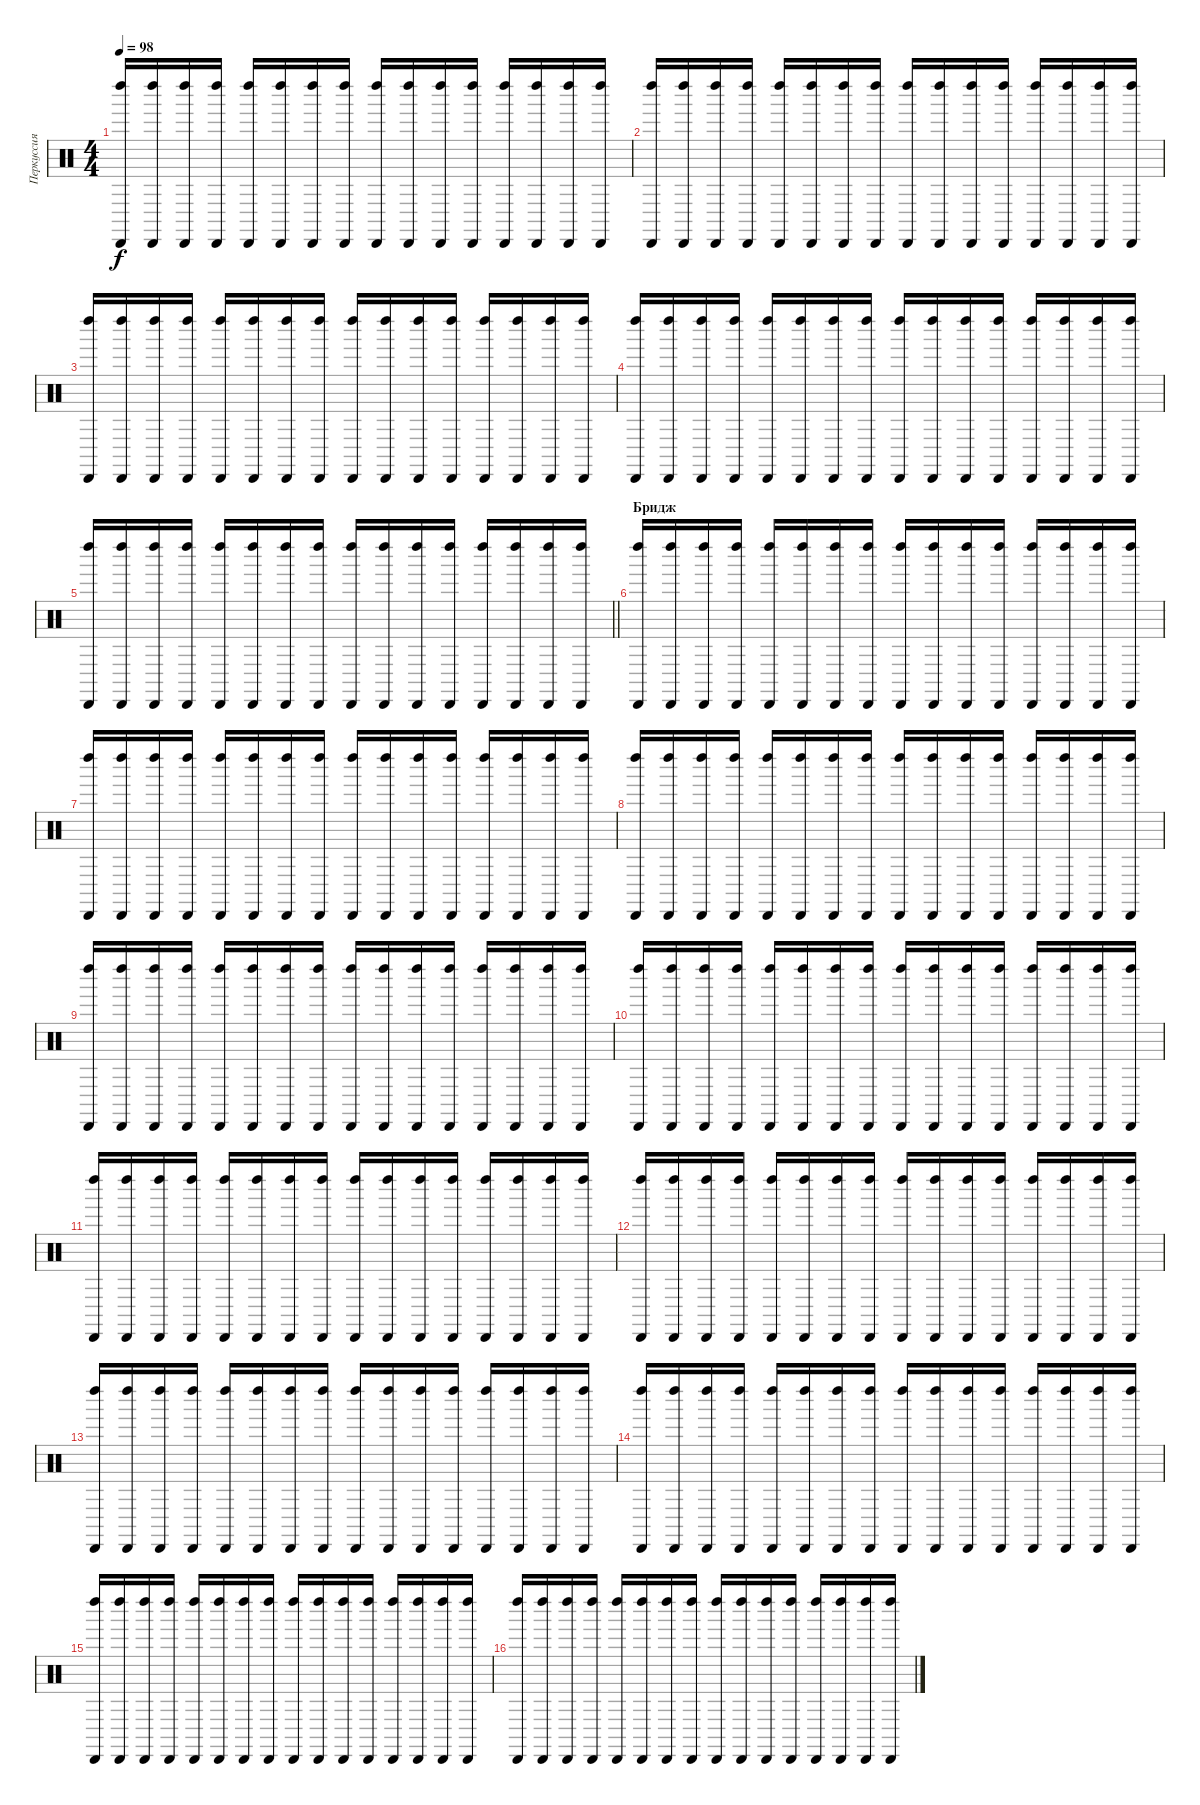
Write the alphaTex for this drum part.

\track ("Перкуссия" "Перкуссия") {instrument percussion}
\staff {score}
\articulation defaults
\ts (4 4)
\tempo 98
\clef neutral
\ks c
("Cabasa (hit)" "Left Maraca (hit)").16{dy f} ("Cabasa (hit)" "Left Maraca (hit)").16 ("Cabasa (hit)" "Left Maraca (hit)").16 ("Cabasa (hit)" "Left Maraca (hit)").16 ("Cabasa (hit)" "Left Maraca (hit)").16 ("Cabasa (hit)" "Left Maraca (hit)").16 ("Cabasa (hit)" "Left Maraca (hit)").16 ("Cabasa (hit)" "Left Maraca (hit)").16 ("Cabasa (hit)" "Left Maraca (hit)").16 ("Cabasa (hit)" "Left Maraca (hit)").16 ("Cabasa (hit)" "Left Maraca (hit)").16 ("Cabasa (hit)" "Left Maraca (hit)").16 ("Cabasa (hit)" "Left Maraca (hit)").16 ("Cabasa (hit)" "Left Maraca (hit)").16 ("Cabasa (hit)" "Left Maraca (hit)").16 ("Cabasa (hit)" "Left Maraca (hit)").16 |
("Cabasa (hit)" "Left Maraca (hit)").16 ("Cabasa (hit)" "Left Maraca (hit)").16 ("Cabasa (hit)" "Left Maraca (hit)").16 ("Cabasa (hit)" "Left Maraca (hit)").16 ("Cabasa (hit)" "Left Maraca (hit)").16 ("Cabasa (hit)" "Left Maraca (hit)").16 ("Cabasa (hit)" "Left Maraca (hit)").16 ("Cabasa (hit)" "Left Maraca (hit)").16 ("Cabasa (hit)" "Left Maraca (hit)").16 ("Cabasa (hit)" "Left Maraca (hit)").16 ("Cabasa (hit)" "Left Maraca (hit)").16 ("Cabasa (hit)" "Left Maraca (hit)").16 ("Cabasa (hit)" "Left Maraca (hit)").16 ("Cabasa (hit)" "Left Maraca (hit)").16 ("Cabasa (hit)" "Left Maraca (hit)").16 ("Cabasa (hit)" "Left Maraca (hit)").16 |
("Cabasa (hit)" "Left Maraca (hit)").16 ("Cabasa (hit)" "Left Maraca (hit)").16 ("Cabasa (hit)" "Left Maraca (hit)").16 ("Cabasa (hit)" "Left Maraca (hit)").16 ("Cabasa (hit)" "Left Maraca (hit)").16 ("Cabasa (hit)" "Left Maraca (hit)").16 ("Cabasa (hit)" "Left Maraca (hit)").16 ("Cabasa (hit)" "Left Maraca (hit)").16 ("Cabasa (hit)" "Left Maraca (hit)").16 ("Cabasa (hit)" "Left Maraca (hit)").16 ("Cabasa (hit)" "Left Maraca (hit)").16 ("Cabasa (hit)" "Left Maraca (hit)").16 ("Cabasa (hit)" "Left Maraca (hit)").16 ("Cabasa (hit)" "Left Maraca (hit)").16 ("Cabasa (hit)" "Left Maraca (hit)").16 ("Cabasa (hit)" "Left Maraca (hit)").16 |
("Cabasa (hit)" "Left Maraca (hit)").16 ("Cabasa (hit)" "Left Maraca (hit)").16 ("Cabasa (hit)" "Left Maraca (hit)").16 ("Cabasa (hit)" "Left Maraca (hit)").16 ("Cabasa (hit)" "Left Maraca (hit)").16 ("Cabasa (hit)" "Left Maraca (hit)").16 ("Cabasa (hit)" "Left Maraca (hit)").16 ("Cabasa (hit)" "Left Maraca (hit)").16 ("Cabasa (hit)" "Left Maraca (hit)").16 ("Cabasa (hit)" "Left Maraca (hit)").16 ("Cabasa (hit)" "Left Maraca (hit)").16 ("Cabasa (hit)" "Left Maraca (hit)").16 ("Cabasa (hit)" "Left Maraca (hit)").16 ("Cabasa (hit)" "Left Maraca (hit)").16 ("Cabasa (hit)" "Left Maraca (hit)").16 ("Cabasa (hit)" "Left Maraca (hit)").16 |
\barLineRight lightlight
("Cabasa (hit)" "Left Maraca (hit)").16 ("Cabasa (hit)" "Left Maraca (hit)").16 ("Cabasa (hit)" "Left Maraca (hit)").16 ("Cabasa (hit)" "Left Maraca (hit)").16 ("Cabasa (hit)" "Left Maraca (hit)").16 ("Cabasa (hit)" "Left Maraca (hit)").16 ("Cabasa (hit)" "Left Maraca (hit)").16 ("Cabasa (hit)" "Left Maraca (hit)").16 ("Cabasa (hit)" "Left Maraca (hit)").16 ("Cabasa (hit)" "Left Maraca (hit)").16 ("Cabasa (hit)" "Left Maraca (hit)").16 ("Cabasa (hit)" "Left Maraca (hit)").16 ("Cabasa (hit)" "Left Maraca (hit)").16 ("Cabasa (hit)" "Left Maraca (hit)").16 ("Cabasa (hit)" "Left Maraca (hit)").16 ("Cabasa (hit)" "Left Maraca (hit)").16 |
\section ("" "Бридж")
("Cabasa (hit)" "Left Maraca (hit)").16 ("Cabasa (hit)" "Left Maraca (hit)").16 ("Cabasa (hit)" "Left Maraca (hit)").16 ("Cabasa (hit)" "Left Maraca (hit)").16 ("Cabasa (hit)" "Left Maraca (hit)").16 ("Cabasa (hit)" "Left Maraca (hit)").16 ("Cabasa (hit)" "Left Maraca (hit)").16 ("Cabasa (hit)" "Left Maraca (hit)").16 ("Cabasa (hit)" "Left Maraca (hit)").16 ("Cabasa (hit)" "Left Maraca (hit)").16 ("Cabasa (hit)" "Left Maraca (hit)").16 ("Cabasa (hit)" "Left Maraca (hit)").16 ("Cabasa (hit)" "Left Maraca (hit)").16 ("Cabasa (hit)" "Left Maraca (hit)").16 ("Cabasa (hit)" "Left Maraca (hit)").16 ("Cabasa (hit)" "Left Maraca (hit)").16 |
("Cabasa (hit)" "Left Maraca (hit)").16 ("Cabasa (hit)" "Left Maraca (hit)").16 ("Cabasa (hit)" "Left Maraca (hit)").16 ("Cabasa (hit)" "Left Maraca (hit)").16 ("Cabasa (hit)" "Left Maraca (hit)").16 ("Cabasa (hit)" "Left Maraca (hit)").16 ("Cabasa (hit)" "Left Maraca (hit)").16 ("Cabasa (hit)" "Left Maraca (hit)").16 ("Cabasa (hit)" "Left Maraca (hit)").16 ("Cabasa (hit)" "Left Maraca (hit)").16 ("Cabasa (hit)" "Left Maraca (hit)").16 ("Cabasa (hit)" "Left Maraca (hit)").16 ("Cabasa (hit)" "Left Maraca (hit)").16 ("Cabasa (hit)" "Left Maraca (hit)").16 ("Cabasa (hit)" "Left Maraca (hit)").16 ("Cabasa (hit)" "Left Maraca (hit)").16 |
("Cabasa (hit)" "Left Maraca (hit)").16 ("Cabasa (hit)" "Left Maraca (hit)").16 ("Cabasa (hit)" "Left Maraca (hit)").16 ("Cabasa (hit)" "Left Maraca (hit)").16 ("Cabasa (hit)" "Left Maraca (hit)").16 ("Cabasa (hit)" "Left Maraca (hit)").16 ("Cabasa (hit)" "Left Maraca (hit)").16 ("Cabasa (hit)" "Left Maraca (hit)").16 ("Cabasa (hit)" "Left Maraca (hit)").16 ("Cabasa (hit)" "Left Maraca (hit)").16 ("Cabasa (hit)" "Left Maraca (hit)").16 ("Cabasa (hit)" "Left Maraca (hit)").16 ("Cabasa (hit)" "Left Maraca (hit)").16 ("Cabasa (hit)" "Left Maraca (hit)").16 ("Cabasa (hit)" "Left Maraca (hit)").16 ("Cabasa (hit)" "Left Maraca (hit)").16 |
("Cabasa (hit)" "Left Maraca (hit)").16 ("Cabasa (hit)" "Left Maraca (hit)").16 ("Cabasa (hit)" "Left Maraca (hit)").16 ("Cabasa (hit)" "Left Maraca (hit)").16 ("Cabasa (hit)" "Left Maraca (hit)").16 ("Cabasa (hit)" "Left Maraca (hit)").16 ("Cabasa (hit)" "Left Maraca (hit)").16 ("Cabasa (hit)" "Left Maraca (hit)").16 ("Cabasa (hit)" "Left Maraca (hit)").16 ("Cabasa (hit)" "Left Maraca (hit)").16 ("Cabasa (hit)" "Left Maraca (hit)").16 ("Cabasa (hit)" "Left Maraca (hit)").16 ("Cabasa (hit)" "Left Maraca (hit)").16 ("Cabasa (hit)" "Left Maraca (hit)").16 ("Cabasa (hit)" "Left Maraca (hit)").16 ("Cabasa (hit)" "Left Maraca (hit)").16 |
("Cabasa (hit)" "Left Maraca (hit)").16 ("Cabasa (hit)" "Left Maraca (hit)").16 ("Cabasa (hit)" "Left Maraca (hit)").16 ("Cabasa (hit)" "Left Maraca (hit)").16 ("Cabasa (hit)" "Left Maraca (hit)").16 ("Cabasa (hit)" "Left Maraca (hit)").16 ("Cabasa (hit)" "Left Maraca (hit)").16 ("Cabasa (hit)" "Left Maraca (hit)").16 ("Cabasa (hit)" "Left Maraca (hit)").16 ("Cabasa (hit)" "Left Maraca (hit)").16 ("Cabasa (hit)" "Left Maraca (hit)").16 ("Cabasa (hit)" "Left Maraca (hit)").16 ("Cabasa (hit)" "Left Maraca (hit)").16 ("Cabasa (hit)" "Left Maraca (hit)").16 ("Cabasa (hit)" "Left Maraca (hit)").16 ("Cabasa (hit)" "Left Maraca (hit)").16 |
("Cabasa (hit)" "Left Maraca (hit)").16 ("Cabasa (hit)" "Left Maraca (hit)").16 ("Cabasa (hit)" "Left Maraca (hit)").16 ("Cabasa (hit)" "Left Maraca (hit)").16 ("Cabasa (hit)" "Left Maraca (hit)").16 ("Cabasa (hit)" "Left Maraca (hit)").16 ("Cabasa (hit)" "Left Maraca (hit)").16 ("Cabasa (hit)" "Left Maraca (hit)").16 ("Cabasa (hit)" "Left Maraca (hit)").16 ("Cabasa (hit)" "Left Maraca (hit)").16 ("Cabasa (hit)" "Left Maraca (hit)").16 ("Cabasa (hit)" "Left Maraca (hit)").16 ("Cabasa (hit)" "Left Maraca (hit)").16 ("Cabasa (hit)" "Left Maraca (hit)").16 ("Cabasa (hit)" "Left Maraca (hit)").16 ("Cabasa (hit)" "Left Maraca (hit)").16 |
("Cabasa (hit)" "Left Maraca (hit)").16 ("Cabasa (hit)" "Left Maraca (hit)").16 ("Cabasa (hit)" "Left Maraca (hit)").16 ("Cabasa (hit)" "Left Maraca (hit)").16 ("Cabasa (hit)" "Left Maraca (hit)").16 ("Cabasa (hit)" "Left Maraca (hit)").16 ("Cabasa (hit)" "Left Maraca (hit)").16 ("Cabasa (hit)" "Left Maraca (hit)").16 ("Cabasa (hit)" "Left Maraca (hit)").16 ("Cabasa (hit)" "Left Maraca (hit)").16 ("Cabasa (hit)" "Left Maraca (hit)").16 ("Cabasa (hit)" "Left Maraca (hit)").16 ("Cabasa (hit)" "Left Maraca (hit)").16 ("Cabasa (hit)" "Left Maraca (hit)").16 ("Cabasa (hit)" "Left Maraca (hit)").16 ("Cabasa (hit)" "Left Maraca (hit)").16 |
("Cabasa (hit)" "Left Maraca (hit)").16 ("Cabasa (hit)" "Left Maraca (hit)").16 ("Cabasa (hit)" "Left Maraca (hit)").16 ("Cabasa (hit)" "Left Maraca (hit)").16 ("Cabasa (hit)" "Left Maraca (hit)").16 ("Cabasa (hit)" "Left Maraca (hit)").16 ("Cabasa (hit)" "Left Maraca (hit)").16 ("Cabasa (hit)" "Left Maraca (hit)").16 ("Cabasa (hit)" "Left Maraca (hit)").16 ("Cabasa (hit)" "Left Maraca (hit)").16 ("Cabasa (hit)" "Left Maraca (hit)").16 ("Cabasa (hit)" "Left Maraca (hit)").16 ("Cabasa (hit)" "Left Maraca (hit)").16 ("Cabasa (hit)" "Left Maraca (hit)").16 ("Cabasa (hit)" "Left Maraca (hit)").16 ("Cabasa (hit)" "Left Maraca (hit)").16 |
("Cabasa (hit)" "Left Maraca (hit)").16 ("Cabasa (hit)" "Left Maraca (hit)").16 ("Cabasa (hit)" "Left Maraca (hit)").16 ("Cabasa (hit)" "Left Maraca (hit)").16 ("Cabasa (hit)" "Left Maraca (hit)").16 ("Cabasa (hit)" "Left Maraca (hit)").16 ("Cabasa (hit)" "Left Maraca (hit)").16 ("Cabasa (hit)" "Left Maraca (hit)").16 ("Cabasa (hit)" "Left Maraca (hit)").16 ("Cabasa (hit)" "Left Maraca (hit)").16 ("Cabasa (hit)" "Left Maraca (hit)").16 ("Cabasa (hit)" "Left Maraca (hit)").16 ("Cabasa (hit)" "Left Maraca (hit)").16 ("Cabasa (hit)" "Left Maraca (hit)").16 ("Cabasa (hit)" "Left Maraca (hit)").16 ("Cabasa (hit)" "Left Maraca (hit)").16 |
("Cabasa (hit)" "Left Maraca (hit)").16 ("Cabasa (hit)" "Left Maraca (hit)").16 ("Cabasa (hit)" "Left Maraca (hit)").16 ("Cabasa (hit)" "Left Maraca (hit)").16 ("Cabasa (hit)" "Left Maraca (hit)").16 ("Cabasa (hit)" "Left Maraca (hit)").16 ("Cabasa (hit)" "Left Maraca (hit)").16 ("Cabasa (hit)" "Left Maraca (hit)").16 ("Cabasa (hit)" "Left Maraca (hit)").16 ("Cabasa (hit)" "Left Maraca (hit)").16 ("Cabasa (hit)" "Left Maraca (hit)").16 ("Cabasa (hit)" "Left Maraca (hit)").16 ("Cabasa (hit)" "Left Maraca (hit)").16 ("Cabasa (hit)" "Left Maraca (hit)").16 ("Cabasa (hit)" "Left Maraca (hit)").16 ("Cabasa (hit)" "Left Maraca (hit)").16 |
("Cabasa (hit)" "Left Maraca (hit)").16 ("Cabasa (hit)" "Left Maraca (hit)").16 ("Cabasa (hit)" "Left Maraca (hit)").16 ("Cabasa (hit)" "Left Maraca (hit)").16 ("Cabasa (hit)" "Left Maraca (hit)").16 ("Cabasa (hit)" "Left Maraca (hit)").16 ("Cabasa (hit)" "Left Maraca (hit)").16 ("Cabasa (hit)" "Left Maraca (hit)").16 ("Cabasa (hit)" "Left Maraca (hit)").16 ("Cabasa (hit)" "Left Maraca (hit)").16 ("Cabasa (hit)" "Left Maraca (hit)").16 ("Cabasa (hit)" "Left Maraca (hit)").16 ("Cabasa (hit)" "Left Maraca (hit)").16 ("Cabasa (hit)" "Left Maraca (hit)").16 ("Cabasa (hit)" "Left Maraca (hit)").16 ("Cabasa (hit)" "Left Maraca (hit)").16
